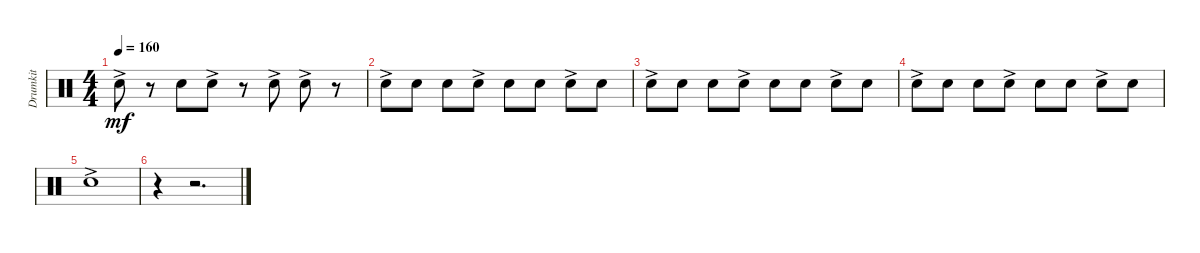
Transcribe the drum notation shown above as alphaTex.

\track ("Drumkit" "Drumkit") {instrument percussion}
\staff {score}
\articulation defaults
\ts (4 4)
\tempo 160
\clef neutral
\ks c "Snare (hit) 2"{ac}.8{dy mf}
r.8 "Snare (hit) 2".8 "Snare (hit) 2"{ac}.8 r.8 "Snare (hit) 2"{ac}.8 "Snare (hit) 2"{ac}.8 r.8 |
"Snare (hit) 2"{ac}.8 "Snare (hit) 2".8 "Snare (hit) 2".8 "Snare (hit) 2"{ac}.8 "Snare (hit) 2".8 "Snare (hit) 2".8 "Snare (hit) 2"{ac}.8 "Snare (hit) 2".8 |
"Snare (hit) 2"{ac}.8 "Snare (hit) 2".8 "Snare (hit) 2".8 "Snare (hit) 2"{ac}.8 "Snare (hit) 2".8 "Snare (hit) 2".8 "Snare (hit) 2"{ac}.8 "Snare (hit) 2".8 |
"Snare (hit) 2"{ac}.8 "Snare (hit) 2".8 "Snare (hit) 2".8 "Snare (hit) 2"{ac}.8 "Snare (hit) 2".8 "Snare (hit) 2".8 "Snare (hit) 2"{ac}.8 "Snare (hit) 2".8 |
"Snare (hit) 2"{ac}.1 |
r.4 r.2{d}
